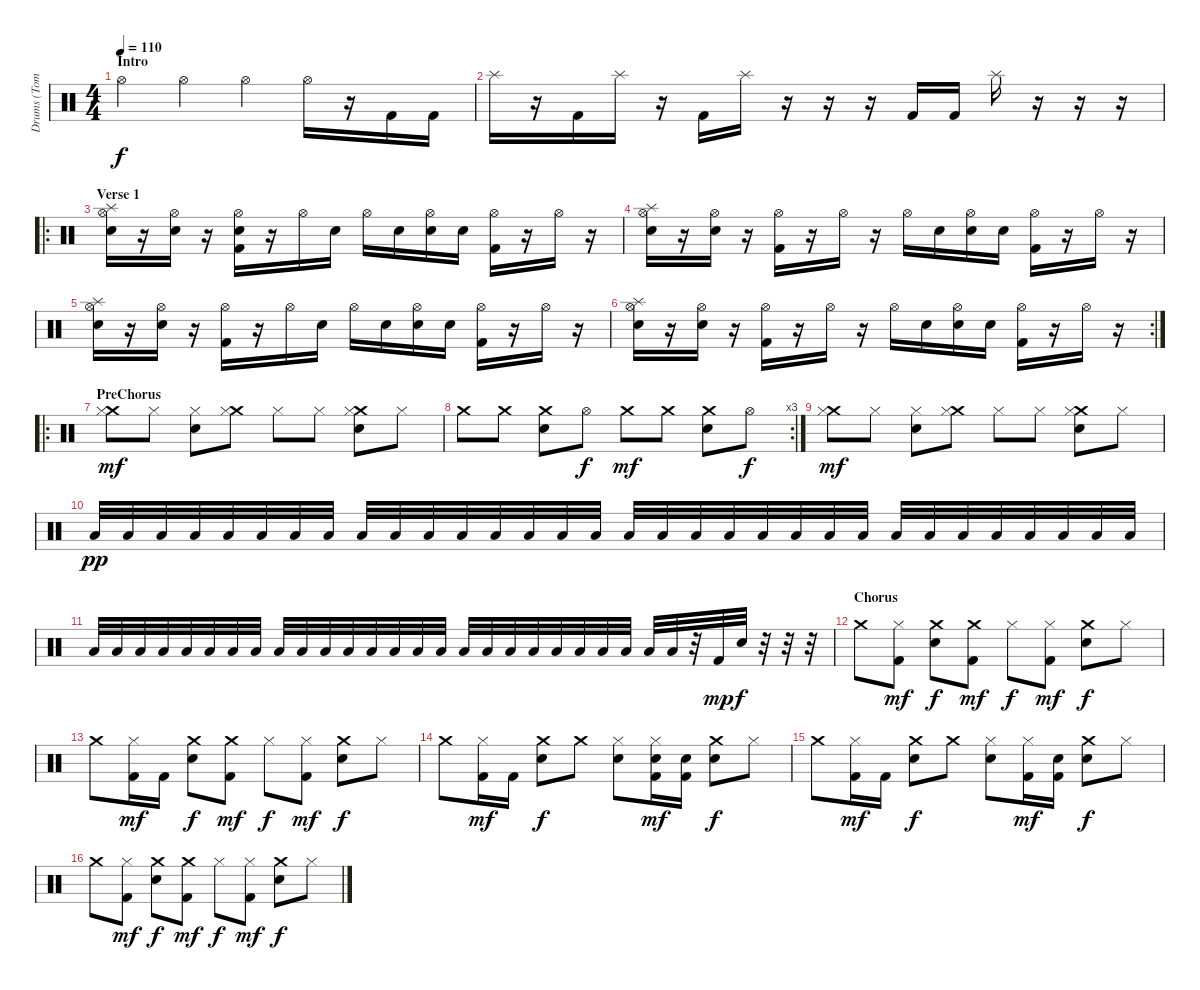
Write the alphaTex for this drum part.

\track ("Drums (Tomate)" "Drums (Tom") {instrument percussion}
\staff {score}
\articulation defaults
\ts (4 4)
\section ("" "Intro")
\tempo 110
\clef neutral
\ks c "Hi-Hat (open)".4{dy f} "Hi-Hat (open)".4 "Hi-Hat (open)".4 "Hi-Hat (open)".16
r.16 "Kick (hit) 2".16 "Kick (hit) 2".16 |
"Splash (hit)".16 r.16 "Kick (hit) 2".16 "Splash (hit)".16 r.16 "Kick (hit) 2".16 "Splash (hit)".16 r.16 r.16 r.16 "Kick (hit) 2".16 "Kick (hit) 2".16 "Splash (hit)".16 r.16 r.16 r.16 |
\ro
\section ("" "Verse 1")
("Splash (hit)" "Electric Snare (hit)" "Hi-Hat (open)").16 r.16 ("Electric Snare (hit)" "Hi-Hat (open)").16 r.16 ("Electric Snare (hit)" "Hi-Hat (open)" "Kick (hit) 2").16 r.16 "Hi-Hat (open)".16 "Electric Snare (hit)".16 "Hi-Hat (open)".16 "Electric Snare (hit)".16 ("Electric Snare (hit)" "Hi-Hat (open)").16 "Electric Snare (hit)".16 ("Hi-Hat (open)" "Kick (hit) 2").16 r.16 "Hi-Hat (open)".16 r.16 |
("Splash (hit)" "Electric Snare (hit)" "Hi-Hat (open)").16 r.16 ("Electric Snare (hit)" "Hi-Hat (open)").16 r.16 ("Hi-Hat (open)" "Kick (hit) 2").16 r.16 "Hi-Hat (open)".16 r.16 "Hi-Hat (open)".16 "Electric Snare (hit)".16 ("Electric Snare (hit)" "Hi-Hat (open)").16 "Electric Snare (hit)".16 ("Hi-Hat (open)" "Kick (hit) 2").16 r.16 "Hi-Hat (open)".16 r.16 |
("Splash (hit)" "Electric Snare (hit)" "Hi-Hat (open)").16 r.16 ("Electric Snare (hit)" "Hi-Hat (open)").16 r.16 ("Hi-Hat (open)" "Kick (hit) 2").16 r.16 "Hi-Hat (open)".16 "Electric Snare (hit)".16 "Hi-Hat (open)".16 "Electric Snare (hit)".16 ("Electric Snare (hit)" "Hi-Hat (open)").16 "Electric Snare (hit)".16 ("Hi-Hat (open)" "Kick (hit) 2").16 r.16 "Hi-Hat (open)".16 r.16 |
\rc 2
("Splash (hit)" "Electric Snare (hit)" "Hi-Hat (open)").16 r.16 ("Electric Snare (hit)" "Hi-Hat (open)").16 r.16 ("Hi-Hat (open)" "Kick (hit) 2").16 r.16 "Hi-Hat (open)".16 r.16 "Hi-Hat (open)".16 "Electric Snare (hit)".16 ("Electric Snare (hit)" "Hi-Hat (open)").16 "Electric Snare (hit)".16 ("Hi-Hat (open)" "Kick (hit) 2").16 r.16 "Hi-Hat (open)".16 r.16 |
\ro
\section ("" "PreChorus")
("Crash medium (hit)" "Hi-Hat (closed)").8{dy mf} "Hi-Hat (closed)".8 ("Hi-Hat (closed)" "Electric Snare (hit)").8 ("Crash medium (hit)" "Hi-Hat (closed)").8 "Hi-Hat (closed)".8 "Hi-Hat (closed)".8 ("Crash medium (hit)" "Hi-Hat (closed)" "Electric Snare (hit)").8 "Hi-Hat (closed)".8 |
\rc 3 "Crash medium (hit)".8 "Crash medium (hit)".8
("Crash medium (hit)" "Electric Snare (hit)").8 "Hi-Hat (open)".8{dy f} "Crash medium (hit)".8{dy mf} "Crash medium (hit)".8 ("Crash medium (hit)" "Electric Snare (hit)").8 "Hi-Hat (open)".8{dy f} |
("Crash medium (hit)" "Hi-Hat (closed)").8{dy mf} "Hi-Hat (closed)".8 ("Hi-Hat (closed)" "Electric Snare (hit)").8 ("Crash medium (hit)" "Hi-Hat (closed)").8 "Hi-Hat (closed)".8 "Hi-Hat (closed)".8 ("Crash medium (hit)" "Hi-Hat (closed)" "Electric Snare (hit)").8 "Hi-Hat (closed)".8 |
"Low Floor Tom (hit)".32{dy pp} "Low Floor Tom (hit)".32 "Low Floor Tom (hit)".32 "Low Floor Tom (hit)".32 "Low Floor Tom (hit)".32 "Low Floor Tom (hit)".32 "Low Floor Tom (hit)".32 "Low Floor Tom (hit)".32 "Low Floor Tom (hit)".32 "Low Floor Tom (hit)".32 "Low Floor Tom (hit)".32 "Low Floor Tom (hit)".32 "Low Floor Tom (hit)".32 "Low Floor Tom (hit)".32 "Low Floor Tom (hit)".32 "Low Floor Tom (hit)".32 "Low Floor Tom (hit)".32 "Low Floor Tom (hit)".32 "Low Floor Tom (hit)".32 "Low Floor Tom (hit)".32 "Low Floor Tom (hit)".32 "Low Floor Tom (hit)".32 "Low Floor Tom (hit)".32 "Low Floor Tom (hit)".32 "Low Floor Tom (hit)".32 "Low Floor Tom (hit)".32 "Low Floor Tom (hit)".32 "Low Floor Tom (hit)".32 "Low Floor Tom (hit)".32 "Low Floor Tom (hit)".32 "Low Floor Tom (hit)".32 "Low Floor Tom (hit)".32 |
"Low Floor Tom (hit)".32 "Low Floor Tom (hit)".32 "Low Floor Tom (hit)".32 "Low Floor Tom (hit)".32 "Low Floor Tom (hit)".32 "Low Floor Tom (hit)".32 "Low Floor Tom (hit)".32 "Low Floor Tom (hit)".32 "Low Floor Tom (hit)".32 "Low Floor Tom (hit)".32 "Low Floor Tom (hit)".32 "Low Floor Tom (hit)".32 "Low Floor Tom (hit)".32 "Low Floor Tom (hit)".32 "Low Floor Tom (hit)".32 "Low Floor Tom (hit)".32 "Low Floor Tom (hit)".32 "Low Floor Tom (hit)".32 "Low Floor Tom (hit)".32 "Low Floor Tom (hit)".32 "Low Floor Tom (hit)".32 "Low Floor Tom (hit)".32 "Low Floor Tom (hit)".32 "Low Floor Tom (hit)".32 "Low Floor Tom (hit)".32 "Low Floor Tom (hit)".32 r.32 "Kick (hit) 2".32{dy mp} "Electric Snare (hit)".32{dy f} r.32 r.32 r.32 |
\section ("" "Chorus")
"Crash medium (hit)".8 ("Hi-Hat (closed)" "Kick (hit) 2").8{dy mf} ("Crash medium (hit)" "Electric Snare (hit)").8{dy f} ("Crash medium (hit)" "Kick (hit) 2").8{dy mf} "Hi-Hat (closed)".8{dy f} ("Hi-Hat (closed)" "Kick (hit) 2").8{dy mf} ("Crash medium (hit)" "Electric Snare (hit)").8{dy f} "Hi-Hat (closed)".8 |
"Crash medium (hit)".8 ("Hi-Hat (closed)" "Kick (hit) 2").16{dy mf} "Kick (hit) 2".16 ("Crash medium (hit)" "Electric Snare (hit)").8{dy f} ("Crash medium (hit)" "Kick (hit) 2").8{dy mf} "Hi-Hat (closed)".8{dy f} ("Hi-Hat (closed)" "Kick (hit) 2").8{dy mf} ("Crash medium (hit)" "Electric Snare (hit)").8{dy f} "Hi-Hat (closed)".8 |
"Crash medium (hit)".8 ("Hi-Hat (closed)" "Kick (hit) 2").16{dy mf} "Kick (hit) 2".16 ("Crash medium (hit)" "Electric Snare (hit)").8{dy f} "Crash medium (hit)".8 ("Hi-Hat (closed)" "Electric Snare (hit)").8 ("Hi-Hat (closed)" "Electric Snare (hit)" "Kick (hit) 2").16{dy mf} ("Electric Snare (hit)" "Kick (hit) 2").16 ("Crash medium (hit)" "Electric Snare (hit)").8{dy f} "Hi-Hat (closed)".8 |
"Crash medium (hit)".8 ("Hi-Hat (closed)" "Kick (hit) 2").16{dy mf} "Kick (hit) 2".16 ("Crash medium (hit)" "Electric Snare (hit)").8{dy f} "Crash medium (hit)".8 ("Hi-Hat (closed)" "Electric Snare (hit)").8 ("Hi-Hat (closed)" "Kick (hit) 2").16{dy mf} ("Electric Snare (hit)" "Kick (hit) 2").16 ("Crash medium (hit)" "Electric Snare (hit)").8{dy f} "Hi-Hat (closed)".8 |
"Crash medium (hit)".8 ("Hi-Hat (closed)" "Kick (hit) 2").8{dy mf} ("Crash medium (hit)" "Electric Snare (hit)").8{dy f} ("Crash medium (hit)" "Kick (hit) 2").8{dy mf} "Hi-Hat (closed)".8{dy f} ("Hi-Hat (closed)" "Kick (hit) 2").8{dy mf} ("Crash medium (hit)" "Electric Snare (hit)").8{dy f} "Hi-Hat (closed)".8
